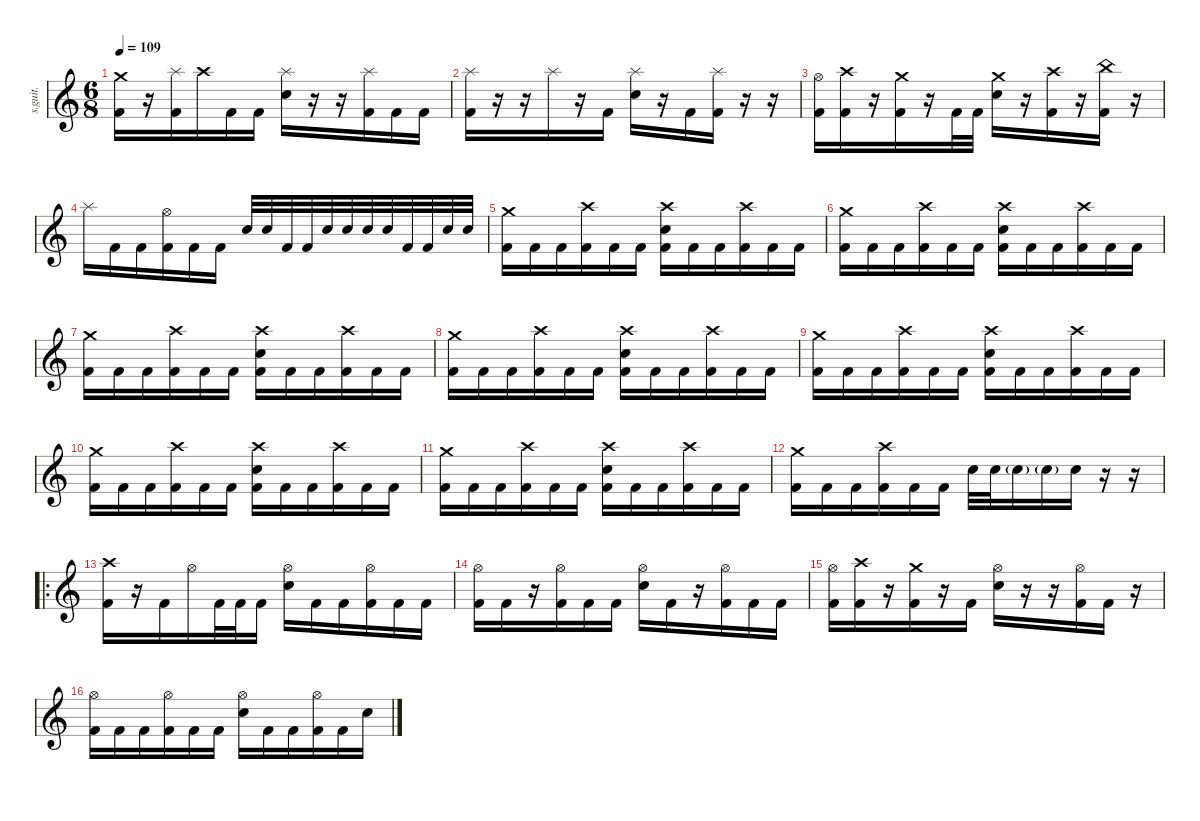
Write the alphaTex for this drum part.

\defaultSystemsLayout 4
\hideDynamics
\bracketExtendMode nobrackets
\track ("Drumkit" "s.guit.") {instrument percussion}
\staff {score}
\articulation defaults
\ts (6 8)
\tempo 109
\clef g2
\ks c
("Crash medium (hit)" "Kick (hit) 2").16{lyrics (0 "") lyrics (1 "") lyrics (2 "") lyrics (3 "") lyrics (4 "") dy f} r.16 ("Splash (hit)" "Kick (hit) 2").16{lyrics (0 "") lyrics (1 "") lyrics (2 "") lyrics (3 "") lyrics (4 "")} "Crash high (hit)".16{lyrics (0 "") lyrics (1 "") lyrics (2 "") lyrics (3 "") lyrics (4 "")} "Kick (hit) 2".16{lyrics (0 "") lyrics (1 "") lyrics (2 "") lyrics (3 "") lyrics (4 "")} "Kick (hit) 2".16{lyrics (0 "") lyrics (1 "") lyrics (2 "") lyrics (3 "") lyrics (4 "")} ("Splash (hit)" "Electric Snare (hit)").16{lyrics (0 "") lyrics (1 "") lyrics (2 "") lyrics (3 "") lyrics (4 "")} r.16 r.16 ("Splash (hit)" "Kick (hit) 2").16{lyrics (0 "") lyrics (1 "") lyrics (2 "") lyrics (3 "") lyrics (4 "")} "Kick (hit) 2".16{lyrics (0 "") lyrics (1 "") lyrics (2 "") lyrics (3 "") lyrics (4 "")} "Kick (hit) 2".16{lyrics (0 "") lyrics (1 "") lyrics (2 "") lyrics (3 "") lyrics (4 "")} |
("Splash (hit)" "Kick (hit) 2").16{lyrics (0 "") lyrics (1 "") lyrics (2 "") lyrics (3 "") lyrics (4 "")} r.16 r.16 "Splash (hit)".16{lyrics (0 "") lyrics (1 "") lyrics (2 "") lyrics (3 "") lyrics (4 "")} r.16 "Kick (hit) 2".16{lyrics (0 "") lyrics (1 "") lyrics (2 "") lyrics (3 "") lyrics (4 "")} ("Splash (hit)" "Electric Snare (hit)").16{lyrics (0 "") lyrics (1 "") lyrics (2 "") lyrics (3 "") lyrics (4 "")} r.16 "Kick (hit) 2".16{lyrics (0 "") lyrics (1 "") lyrics (2 "") lyrics (3 "") lyrics (4 "")} ("Splash (hit)" "Kick (hit) 2").16{lyrics (0 "") lyrics (1 "") lyrics (2 "") lyrics (3 "") lyrics (4 "")} r.16 r.16 |
("Hi-Hat (open)" "Kick (hit) 2").16{lyrics (0 "") lyrics (1 "") lyrics (2 "") lyrics (3 "") lyrics (4 "")} ("Crash high (hit)" "Kick (hit) 2").16{lyrics (0 "") lyrics (1 "") lyrics (2 "") lyrics (3 "") lyrics (4 "")} r.16 ("Crash medium (hit)" "Kick (hit) 2").16{lyrics (0 "") lyrics (1 "") lyrics (2 "") lyrics (3 "") lyrics (4 "")} r.16 "Kick (hit) 2".32{lyrics (0 "") lyrics (1 "") lyrics (2 "") lyrics (3 "") lyrics (4 "")} "Kick (hit) 2".32{lyrics (0 "") lyrics (1 "") lyrics (2 "") lyrics (3 "") lyrics (4 "")} ("Crash medium (hit)" "Electric Snare (hit)").16{lyrics (0 "") lyrics (1 "") lyrics (2 "") lyrics (3 "") lyrics (4 "")} r.16 ("Crash high (hit)" "Kick (hit) 2").16{lyrics (0 "") lyrics (1 "") lyrics (2 "") lyrics (3 "") lyrics (4 "")} r.16 ("China (hit)" "Kick (hit) 2").16{lyrics (0 "") lyrics (1 "") lyrics (2 "") lyrics (3 "") lyrics (4 "")} r.16 |
"Splash (hit)".16{lyrics (0 "") lyrics (1 "") lyrics (2 "") lyrics (3 "") lyrics (4 "")} "Kick (hit) 2".16{lyrics (0 "") lyrics (1 "") lyrics (2 "") lyrics (3 "") lyrics (4 "")} "Kick (hit) 2".16{lyrics (0 "") lyrics (1 "") lyrics (2 "") lyrics (3 "") lyrics (4 "")} ("Hi-Hat (open)" "Kick (hit) 2").16{lyrics (0 "") lyrics (1 "") lyrics (2 "") lyrics (3 "") lyrics (4 "")} "Kick (hit) 2".16{lyrics (0 "") lyrics (1 "") lyrics (2 "") lyrics (3 "") lyrics (4 "")} "Kick (hit) 2".16{lyrics (0 "") lyrics (1 "") lyrics (2 "") lyrics (3 "") lyrics (4 "")} "Electric Snare (hit)".32{lyrics (0 "") lyrics (1 "") lyrics (2 "") lyrics (3 "") lyrics (4 "")} "Electric Snare (hit)".32{lyrics (0 "") lyrics (1 "") lyrics (2 "") lyrics (3 "") lyrics (4 "")} "Kick (hit) 2".32{lyrics (0 "") lyrics (1 "") lyrics (2 "") lyrics (3 "") lyrics (4 "")} "Kick (hit) 2".32{lyrics (0 "") lyrics (1 "") lyrics (2 "") lyrics (3 "") lyrics (4 "")} "Electric Snare (hit)".32{lyrics (0 "") lyrics (1 "") lyrics (2 "") lyrics (3 "") lyrics (4 "")} "Electric Snare (hit)".32{lyrics (0 "") lyrics (1 "") lyrics (2 "") lyrics (3 "") lyrics (4 "")} "Electric Snare (hit)".32{lyrics (0 "") lyrics (1 "") lyrics (2 "") lyrics (3 "") lyrics (4 "")} "Electric Snare (hit)".32{lyrics (0 "") lyrics (1 "") lyrics (2 "") lyrics (3 "") lyrics (4 "")} "Kick (hit) 2".32{lyrics (0 "") lyrics (1 "") lyrics (2 "") lyrics (3 "") lyrics (4 "")} "Kick (hit) 2".32{lyrics (0 "") lyrics (1 "") lyrics (2 "") lyrics (3 "") lyrics (4 "")} "Electric Snare (hit)".32{lyrics (0 "") lyrics (1 "") lyrics (2 "") lyrics (3 "") lyrics (4 "")} "Electric Snare (hit)".32{lyrics (0 "") lyrics (1 "") lyrics (2 "") lyrics (3 "") lyrics (4 "")} |
("Crash medium (hit)" "Kick (hit) 2").16{lyrics (0 "") lyrics (1 "") lyrics (2 "") lyrics (3 "") lyrics (4 "")} "Kick (hit) 2".16{lyrics (0 "") lyrics (1 "") lyrics (2 "") lyrics (3 "") lyrics (4 "")} "Kick (hit) 2".16{lyrics (0 "") lyrics (1 "") lyrics (2 "") lyrics (3 "") lyrics (4 "")} ("Crash high (hit)" "Kick (hit) 2").16{lyrics (0 "") lyrics (1 "") lyrics (2 "") lyrics (3 "") lyrics (4 "")} "Kick (hit) 2".16{lyrics (0 "") lyrics (1 "") lyrics (2 "") lyrics (3 "") lyrics (4 "")} "Kick (hit) 2".16{lyrics (0 "") lyrics (1 "") lyrics (2 "") lyrics (3 "") lyrics (4 "")} ("Crash high (hit)" "Electric Snare (hit)" "Kick (hit) 2").16{lyrics (0 "") lyrics (1 "") lyrics (2 "") lyrics (3 "") lyrics (4 "")} "Kick (hit) 2".16{lyrics (0 "") lyrics (1 "") lyrics (2 "") lyrics (3 "") lyrics (4 "")} "Kick (hit) 2".16{lyrics (0 "") lyrics (1 "") lyrics (2 "") lyrics (3 "") lyrics (4 "")} ("Crash high (hit)" "Kick (hit) 2").16{lyrics (0 "") lyrics (1 "") lyrics (2 "") lyrics (3 "") lyrics (4 "")} "Kick (hit) 2".16{lyrics (0 "") lyrics (1 "") lyrics (2 "") lyrics (3 "") lyrics (4 "")} "Kick (hit) 2".16{lyrics (0 "") lyrics (1 "") lyrics (2 "") lyrics (3 "") lyrics (4 "")} |
("Crash medium (hit)" "Kick (hit) 2").16{lyrics (0 "") lyrics (1 "") lyrics (2 "") lyrics (3 "") lyrics (4 "")} "Kick (hit) 2".16{lyrics (0 "") lyrics (1 "") lyrics (2 "") lyrics (3 "") lyrics (4 "")} "Kick (hit) 2".16{lyrics (0 "") lyrics (1 "") lyrics (2 "") lyrics (3 "") lyrics (4 "")} ("Crash high (hit)" "Kick (hit) 2").16{lyrics (0 "") lyrics (1 "") lyrics (2 "") lyrics (3 "") lyrics (4 "")} "Kick (hit) 2".16{lyrics (0 "") lyrics (1 "") lyrics (2 "") lyrics (3 "") lyrics (4 "")} "Kick (hit) 2".16{lyrics (0 "") lyrics (1 "") lyrics (2 "") lyrics (3 "") lyrics (4 "")} ("Crash high (hit)" "Electric Snare (hit)" "Kick (hit) 2").16{lyrics (0 "") lyrics (1 "") lyrics (2 "") lyrics (3 "") lyrics (4 "")} "Kick (hit) 2".16{lyrics (0 "") lyrics (1 "") lyrics (2 "") lyrics (3 "") lyrics (4 "")} "Kick (hit) 2".16{lyrics (0 "") lyrics (1 "") lyrics (2 "") lyrics (3 "") lyrics (4 "")} ("Crash high (hit)" "Kick (hit) 2").16{lyrics (0 "") lyrics (1 "") lyrics (2 "") lyrics (3 "") lyrics (4 "")} "Kick (hit) 2".16{lyrics (0 "") lyrics (1 "") lyrics (2 "") lyrics (3 "") lyrics (4 "")} "Kick (hit) 2".16{lyrics (0 "") lyrics (1 "") lyrics (2 "") lyrics (3 "") lyrics (4 "")} |
("Crash medium (hit)" "Kick (hit) 2").16{lyrics (0 "") lyrics (1 "") lyrics (2 "") lyrics (3 "") lyrics (4 "")} "Kick (hit) 2".16{lyrics (0 "") lyrics (1 "") lyrics (2 "") lyrics (3 "") lyrics (4 "")} "Kick (hit) 2".16{lyrics (0 "") lyrics (1 "") lyrics (2 "") lyrics (3 "") lyrics (4 "")} ("Crash high (hit)" "Kick (hit) 2").16{lyrics (0 "") lyrics (1 "") lyrics (2 "") lyrics (3 "") lyrics (4 "")} "Kick (hit) 2".16{lyrics (0 "") lyrics (1 "") lyrics (2 "") lyrics (3 "") lyrics (4 "")} "Kick (hit) 2".16{lyrics (0 "") lyrics (1 "") lyrics (2 "") lyrics (3 "") lyrics (4 "")} ("Crash high (hit)" "Electric Snare (hit)" "Kick (hit) 2").16{lyrics (0 "") lyrics (1 "") lyrics (2 "") lyrics (3 "") lyrics (4 "")} "Kick (hit) 2".16{lyrics (0 "") lyrics (1 "") lyrics (2 "") lyrics (3 "") lyrics (4 "")} "Kick (hit) 2".16{lyrics (0 "") lyrics (1 "") lyrics (2 "") lyrics (3 "") lyrics (4 "")} ("Crash high (hit)" "Kick (hit) 2").16{lyrics (0 "") lyrics (1 "") lyrics (2 "") lyrics (3 "") lyrics (4 "")} "Kick (hit) 2".16{lyrics (0 "") lyrics (1 "") lyrics (2 "") lyrics (3 "") lyrics (4 "")} "Kick (hit) 2".16{lyrics (0 "") lyrics (1 "") lyrics (2 "") lyrics (3 "") lyrics (4 "")} |
("Crash medium (hit)" "Kick (hit) 2").16{lyrics (0 "") lyrics (1 "") lyrics (2 "") lyrics (3 "") lyrics (4 "")} "Kick (hit) 2".16{lyrics (0 "") lyrics (1 "") lyrics (2 "") lyrics (3 "") lyrics (4 "")} "Kick (hit) 2".16{lyrics (0 "") lyrics (1 "") lyrics (2 "") lyrics (3 "") lyrics (4 "")} ("Crash high (hit)" "Kick (hit) 2").16{lyrics (0 "") lyrics (1 "") lyrics (2 "") lyrics (3 "") lyrics (4 "")} "Kick (hit) 2".16{lyrics (0 "") lyrics (1 "") lyrics (2 "") lyrics (3 "") lyrics (4 "")} "Kick (hit) 2".16{lyrics (0 "") lyrics (1 "") lyrics (2 "") lyrics (3 "") lyrics (4 "")} ("Crash high (hit)" "Electric Snare (hit)" "Kick (hit) 2").16{lyrics (0 "") lyrics (1 "") lyrics (2 "") lyrics (3 "") lyrics (4 "")} "Kick (hit) 2".16{lyrics (0 "") lyrics (1 "") lyrics (2 "") lyrics (3 "") lyrics (4 "")} "Kick (hit) 2".16{lyrics (0 "") lyrics (1 "") lyrics (2 "") lyrics (3 "") lyrics (4 "")} ("Crash high (hit)" "Kick (hit) 2").16{lyrics (0 "") lyrics (1 "") lyrics (2 "") lyrics (3 "") lyrics (4 "")} "Kick (hit) 2".16{lyrics (0 "") lyrics (1 "") lyrics (2 "") lyrics (3 "") lyrics (4 "")} "Kick (hit) 2".16{lyrics (0 "") lyrics (1 "") lyrics (2 "") lyrics (3 "") lyrics (4 "")} |
("Crash medium (hit)" "Kick (hit) 2").16{lyrics (0 "") lyrics (1 "") lyrics (2 "") lyrics (3 "") lyrics (4 "")} "Kick (hit) 2".16{lyrics (0 "") lyrics (1 "") lyrics (2 "") lyrics (3 "") lyrics (4 "")} "Kick (hit) 2".16{lyrics (0 "") lyrics (1 "") lyrics (2 "") lyrics (3 "") lyrics (4 "")} ("Crash high (hit)" "Kick (hit) 2").16{lyrics (0 "") lyrics (1 "") lyrics (2 "") lyrics (3 "") lyrics (4 "")} "Kick (hit) 2".16{lyrics (0 "") lyrics (1 "") lyrics (2 "") lyrics (3 "") lyrics (4 "")} "Kick (hit) 2".16{lyrics (0 "") lyrics (1 "") lyrics (2 "") lyrics (3 "") lyrics (4 "")} ("Crash high (hit)" "Electric Snare (hit)" "Kick (hit) 2").16{lyrics (0 "") lyrics (1 "") lyrics (2 "") lyrics (3 "") lyrics (4 "")} "Kick (hit) 2".16{lyrics (0 "") lyrics (1 "") lyrics (2 "") lyrics (3 "") lyrics (4 "")} "Kick (hit) 2".16{lyrics (0 "") lyrics (1 "") lyrics (2 "") lyrics (3 "") lyrics (4 "")} ("Crash high (hit)" "Kick (hit) 2").16{lyrics (0 "") lyrics (1 "") lyrics (2 "") lyrics (3 "") lyrics (4 "")} "Kick (hit) 2".16{lyrics (0 "") lyrics (1 "") lyrics (2 "") lyrics (3 "") lyrics (4 "")} "Kick (hit) 2".16{lyrics (0 "") lyrics (1 "") lyrics (2 "") lyrics (3 "") lyrics (4 "")} |
("Crash medium (hit)" "Kick (hit) 2").16{lyrics (0 "") lyrics (1 "") lyrics (2 "") lyrics (3 "") lyrics (4 "")} "Kick (hit) 2".16{lyrics (0 "") lyrics (1 "") lyrics (2 "") lyrics (3 "") lyrics (4 "")} "Kick (hit) 2".16{lyrics (0 "") lyrics (1 "") lyrics (2 "") lyrics (3 "") lyrics (4 "")} ("Crash high (hit)" "Kick (hit) 2").16{lyrics (0 "") lyrics (1 "") lyrics (2 "") lyrics (3 "") lyrics (4 "")} "Kick (hit) 2".16{lyrics (0 "") lyrics (1 "") lyrics (2 "") lyrics (3 "") lyrics (4 "")} "Kick (hit) 2".16{lyrics (0 "") lyrics (1 "") lyrics (2 "") lyrics (3 "") lyrics (4 "")} ("Crash high (hit)" "Electric Snare (hit)" "Kick (hit) 2").16{lyrics (0 "") lyrics (1 "") lyrics (2 "") lyrics (3 "") lyrics (4 "")} "Kick (hit) 2".16{lyrics (0 "") lyrics (1 "") lyrics (2 "") lyrics (3 "") lyrics (4 "")} "Kick (hit) 2".16{lyrics (0 "") lyrics (1 "") lyrics (2 "") lyrics (3 "") lyrics (4 "")} ("Crash high (hit)" "Kick (hit) 2").16{lyrics (0 "") lyrics (1 "") lyrics (2 "") lyrics (3 "") lyrics (4 "")} "Kick (hit) 2".16{lyrics (0 "") lyrics (1 "") lyrics (2 "") lyrics (3 "") lyrics (4 "")} "Kick (hit) 2".16{lyrics (0 "") lyrics (1 "") lyrics (2 "") lyrics (3 "") lyrics (4 "")} |
("Crash medium (hit)" "Kick (hit) 2").16{lyrics (0 "") lyrics (1 "") lyrics (2 "") lyrics (3 "") lyrics (4 "")} "Kick (hit) 2".16{lyrics (0 "") lyrics (1 "") lyrics (2 "") lyrics (3 "") lyrics (4 "")} "Kick (hit) 2".16{lyrics (0 "") lyrics (1 "") lyrics (2 "") lyrics (3 "") lyrics (4 "")} ("Crash high (hit)" "Kick (hit) 2").16{lyrics (0 "") lyrics (1 "") lyrics (2 "") lyrics (3 "") lyrics (4 "")} "Kick (hit) 2".16{lyrics (0 "") lyrics (1 "") lyrics (2 "") lyrics (3 "") lyrics (4 "")} "Kick (hit) 2".16{lyrics (0 "") lyrics (1 "") lyrics (2 "") lyrics (3 "") lyrics (4 "")} ("Crash high (hit)" "Electric Snare (hit)" "Kick (hit) 2").16{lyrics (0 "") lyrics (1 "") lyrics (2 "") lyrics (3 "") lyrics (4 "")} "Kick (hit) 2".16{lyrics (0 "") lyrics (1 "") lyrics (2 "") lyrics (3 "") lyrics (4 "")} "Kick (hit) 2".16{lyrics (0 "") lyrics (1 "") lyrics (2 "") lyrics (3 "") lyrics (4 "")} ("Crash high (hit)" "Kick (hit) 2").16{lyrics (0 "") lyrics (1 "") lyrics (2 "") lyrics (3 "") lyrics (4 "")} "Kick (hit) 2".16{lyrics (0 "") lyrics (1 "") lyrics (2 "") lyrics (3 "") lyrics (4 "")} "Kick (hit) 2".16{lyrics (0 "") lyrics (1 "") lyrics (2 "") lyrics (3 "") lyrics (4 "")} |
("Crash medium (hit)" "Kick (hit) 2").16{lyrics (0 "") lyrics (1 "") lyrics (2 "") lyrics (3 "") lyrics (4 "")} "Kick (hit) 2".16{lyrics (0 "") lyrics (1 "") lyrics (2 "") lyrics (3 "") lyrics (4 "")} "Kick (hit) 2".16{lyrics (0 "") lyrics (1 "") lyrics (2 "") lyrics (3 "") lyrics (4 "")} ("Crash high (hit)" "Kick (hit) 2").16{lyrics (0 "") lyrics (1 "") lyrics (2 "") lyrics (3 "") lyrics (4 "")} "Kick (hit) 2".16{lyrics (0 "") lyrics (1 "") lyrics (2 "") lyrics (3 "") lyrics (4 "")} "Kick (hit) 2".16{lyrics (0 "") lyrics (1 "") lyrics (2 "") lyrics (3 "") lyrics (4 "")} "Electric Snare (hit)".32{lyrics (0 "") lyrics (1 "") lyrics (2 "") lyrics (3 "") lyrics (4 "")} "Electric Snare (hit)".32{lyrics (0 "") lyrics (1 "") lyrics (2 "") lyrics (3 "") lyrics (4 "")} "Electric Snare (hit)"{g}.16{lyrics (0 "") lyrics (1 "") lyrics (2 "") lyrics (3 "") lyrics (4 "") dy mf} "Electric Snare (hit)"{g}.16{lyrics (0 "") lyrics (1 "") lyrics (2 "") lyrics (3 "") lyrics (4 "")} "Electric Snare (hit)".16{lyrics (0 "") lyrics (1 "") lyrics (2 "") lyrics (3 "") lyrics (4 "") dy f} r.16 r.16 |
\ro
("Crash high (hit)" "Kick (hit) 2").16{lyrics (0 "") lyrics (1 "") lyrics (2 "") lyrics (3 "") lyrics (4 "")} r.16 "Kick (hit) 2".16{lyrics (0 "") lyrics (1 "") lyrics (2 "") lyrics (3 "") lyrics (4 "")} "Hi-Hat (open)".16{lyrics (0 "") lyrics (1 "") lyrics (2 "") lyrics (3 "") lyrics (4 "")} "Kick (hit) 2".32{lyrics (0 "") lyrics (1 "") lyrics (2 "") lyrics (3 "") lyrics (4 "")} "Kick (hit) 2".32{lyrics (0 "") lyrics (1 "") lyrics (2 "") lyrics (3 "") lyrics (4 "")} "Kick (hit) 2".16{lyrics (0 "") lyrics (1 "") lyrics (2 "") lyrics (3 "") lyrics (4 "")} ("Hi-Hat (open)" "Electric Snare (hit)").16{lyrics (0 "") lyrics (1 "") lyrics (2 "") lyrics (3 "") lyrics (4 "")} "Kick (hit) 2".16{lyrics (0 "") lyrics (1 "") lyrics (2 "") lyrics (3 "") lyrics (4 "")} "Kick (hit) 2".16{lyrics (0 "") lyrics (1 "") lyrics (2 "") lyrics (3 "") lyrics (4 "")} ("Hi-Hat (open)" "Kick (hit) 2").16{lyrics (0 "") lyrics (1 "") lyrics (2 "") lyrics (3 "") lyrics (4 "")} "Kick (hit) 2".16{lyrics (0 "") lyrics (1 "") lyrics (2 "") lyrics (3 "") lyrics (4 "")} "Kick (hit) 2".16{lyrics (0 "") lyrics (1 "") lyrics (2 "") lyrics (3 "") lyrics (4 "")} |
("Hi-Hat (open)" "Kick (hit) 2").16{lyrics (0 "") lyrics (1 "") lyrics (2 "") lyrics (3 "") lyrics (4 "")} "Kick (hit) 2".16{lyrics (0 "") lyrics (1 "") lyrics (2 "") lyrics (3 "") lyrics (4 "")} r.16 ("Hi-Hat (open)" "Kick (hit) 2").16{lyrics (0 "") lyrics (1 "") lyrics (2 "") lyrics (3 "") lyrics (4 "")} "Kick (hit) 2".16{lyrics (0 "") lyrics (1 "") lyrics (2 "") lyrics (3 "") lyrics (4 "")} "Kick (hit) 2".16{lyrics (0 "") lyrics (1 "") lyrics (2 "") lyrics (3 "") lyrics (4 "")} ("Hi-Hat (open)" "Electric Snare (hit)").16{lyrics (0 "") lyrics (1 "") lyrics (2 "") lyrics (3 "") lyrics (4 "")} "Kick (hit) 2".16{lyrics (0 "") lyrics (1 "") lyrics (2 "") lyrics (3 "") lyrics (4 "")} r.16 ("Hi-Hat (open)" "Kick (hit) 2").16{lyrics (0 "") lyrics (1 "") lyrics (2 "") lyrics (3 "") lyrics (4 "")} "Kick (hit) 2".16{lyrics (0 "") lyrics (1 "") lyrics (2 "") lyrics (3 "") lyrics (4 "")} "Kick (hit) 2".16{lyrics (0 "") lyrics (1 "") lyrics (2 "") lyrics (3 "") lyrics (4 "")} |
("Hi-Hat (open)" "Kick (hit) 2").16{lyrics (0 "") lyrics (1 "") lyrics (2 "") lyrics (3 "") lyrics (4 "")} ("Crash high (hit)" "Kick (hit) 2").16{lyrics (0 "") lyrics (1 "") lyrics (2 "") lyrics (3 "") lyrics (4 "")} r.16 ("Crash medium (hit)" "Kick (hit) 2").16{lyrics (0 "") lyrics (1 "") lyrics (2 "") lyrics (3 "") lyrics (4 "")} r.16 "Kick (hit) 2".16{lyrics (0 "") lyrics (1 "") lyrics (2 "") lyrics (3 "") lyrics (4 "")} ("Hi-Hat (open)" "Electric Snare (hit)").16{lyrics (0 "") lyrics (1 "") lyrics (2 "") lyrics (3 "") lyrics (4 "")} r.16 r.16 ("Hi-Hat (open)" "Kick (hit) 2").16{lyrics (0 "") lyrics (1 "") lyrics (2 "") lyrics (3 "") lyrics (4 "")} "Kick (hit) 2".16{lyrics (0 "") lyrics (1 "") lyrics (2 "") lyrics (3 "") lyrics (4 "")} r.16 |
("Hi-Hat (open)" "Kick (hit) 2").16{lyrics (0 "") lyrics (1 "") lyrics (2 "") lyrics (3 "") lyrics (4 "")} "Kick (hit) 2".16{lyrics (0 "") lyrics (1 "") lyrics (2 "") lyrics (3 "") lyrics (4 "")} "Kick (hit) 2".16{lyrics (0 "") lyrics (1 "") lyrics (2 "") lyrics (3 "") lyrics (4 "")} ("Hi-Hat (open)" "Kick (hit) 2").16{lyrics (0 "") lyrics (1 "") lyrics (2 "") lyrics (3 "") lyrics (4 "")} "Kick (hit) 2".16{lyrics (0 "") lyrics (1 "") lyrics (2 "") lyrics (3 "") lyrics (4 "")} "Kick (hit) 2".16{lyrics (0 "") lyrics (1 "") lyrics (2 "") lyrics (3 "") lyrics (4 "")} ("Hi-Hat (open)" "Electric Snare (hit)").16{lyrics (0 "") lyrics (1 "") lyrics (2 "") lyrics (3 "") lyrics (4 "")} "Kick (hit) 2".16{lyrics (0 "") lyrics (1 "") lyrics (2 "") lyrics (3 "") lyrics (4 "")} "Kick (hit) 2".16{lyrics (0 "") lyrics (1 "") lyrics (2 "") lyrics (3 "") lyrics (4 "")} ("Hi-Hat (open)" "Kick (hit) 2").16{lyrics (0 "") lyrics (1 "") lyrics (2 "") lyrics (3 "") lyrics (4 "")} "Kick (hit) 2".16{lyrics (0 "") lyrics (1 "") lyrics (2 "") lyrics (3 "") lyrics (4 "")} "Electric Snare (hit)".16{lyrics (0 "") lyrics (1 "") lyrics (2 "") lyrics (3 "") lyrics (4 "")}
